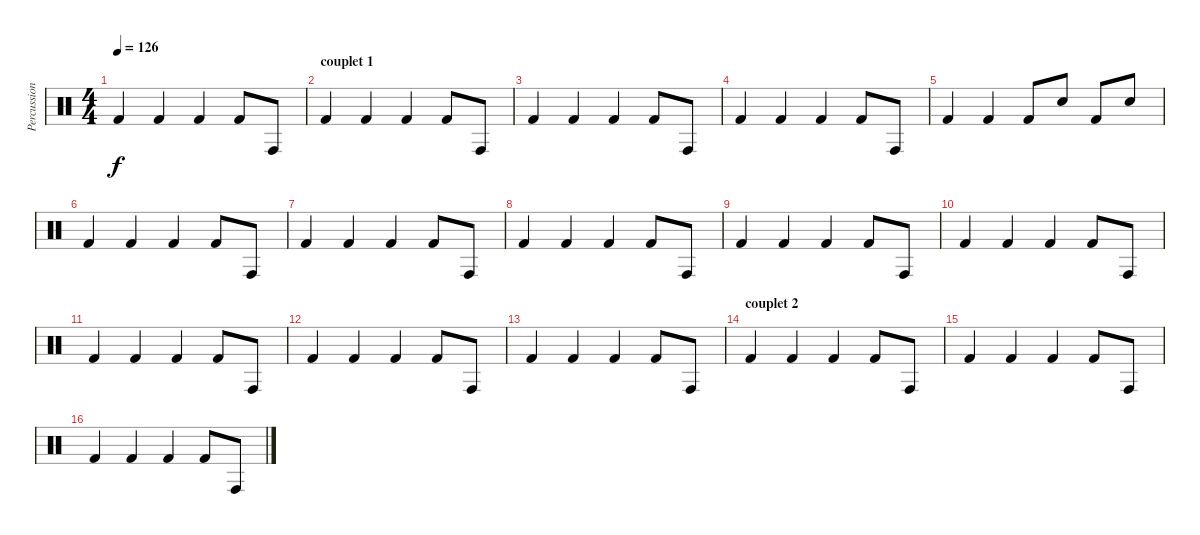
\track ("Percussions" "Percussion") {instrument percussion}
\staff {score}
\articulation defaults
\ts (4 4)
\tempo 126
\clef neutral
\ks c "Kick (hit) 2".4{dy f} "Kick (hit) 2".4 "Kick (hit) 2".4 "Kick (hit) 2".8 "Conga high (hit)".8
|
\section ("" "couplet 1")
"Kick (hit) 2".4 "Kick (hit) 2".4 "Kick (hit) 2".4 "Kick (hit) 2".8 "Conga high (hit)".8 |
"Kick (hit) 2".4 "Kick (hit) 2".4 "Kick (hit) 2".4 "Kick (hit) 2".8 "Conga high (hit)".8 |
"Kick (hit) 2".4 "Kick (hit) 2".4 "Kick (hit) 2".4 "Kick (hit) 2".8 "Conga high (hit)".8 |
"Kick (hit) 2".4 "Kick (hit) 2".4 "Kick (hit) 2".8 "Electric Snare (hit)".8 "Kick (hit) 2".8 "Electric Snare (hit)".8 |
"Kick (hit) 2".4 "Kick (hit) 2".4 "Kick (hit) 2".4 "Kick (hit) 2".8 "Conga high (hit)".8 |
"Kick (hit) 2".4 "Kick (hit) 2".4 "Kick (hit) 2".4 "Kick (hit) 2".8 "Conga high (hit)".8 |
"Kick (hit) 2".4 "Kick (hit) 2".4 "Kick (hit) 2".4 "Kick (hit) 2".8 "Conga high (hit)".8 |
"Kick (hit) 2".4 "Kick (hit) 2".4 "Kick (hit) 2".4 "Kick (hit) 2".8 "Conga high (hit)".8 |
"Kick (hit) 2".4 "Kick (hit) 2".4 "Kick (hit) 2".4 "Kick (hit) 2".8 "Conga high (hit)".8 |
"Kick (hit) 2".4 "Kick (hit) 2".4 "Kick (hit) 2".4 "Kick (hit) 2".8 "Conga high (hit)".8 |
"Kick (hit) 2".4 "Kick (hit) 2".4 "Kick (hit) 2".4 "Kick (hit) 2".8 "Conga high (hit)".8 |
"Kick (hit) 2".4 "Kick (hit) 2".4 "Kick (hit) 2".4 "Kick (hit) 2".8 "Conga high (hit)".8 |
\section ("" "couplet 2")
"Kick (hit) 2".4 "Kick (hit) 2".4 "Kick (hit) 2".4 "Kick (hit) 2".8 "Conga high (hit)".8 |
"Kick (hit) 2".4 "Kick (hit) 2".4 "Kick (hit) 2".4 "Kick (hit) 2".8 "Conga high (hit)".8 |
"Kick (hit) 2".4 "Kick (hit) 2".4 "Kick (hit) 2".4 "Kick (hit) 2".8 "Conga high (hit)".8
